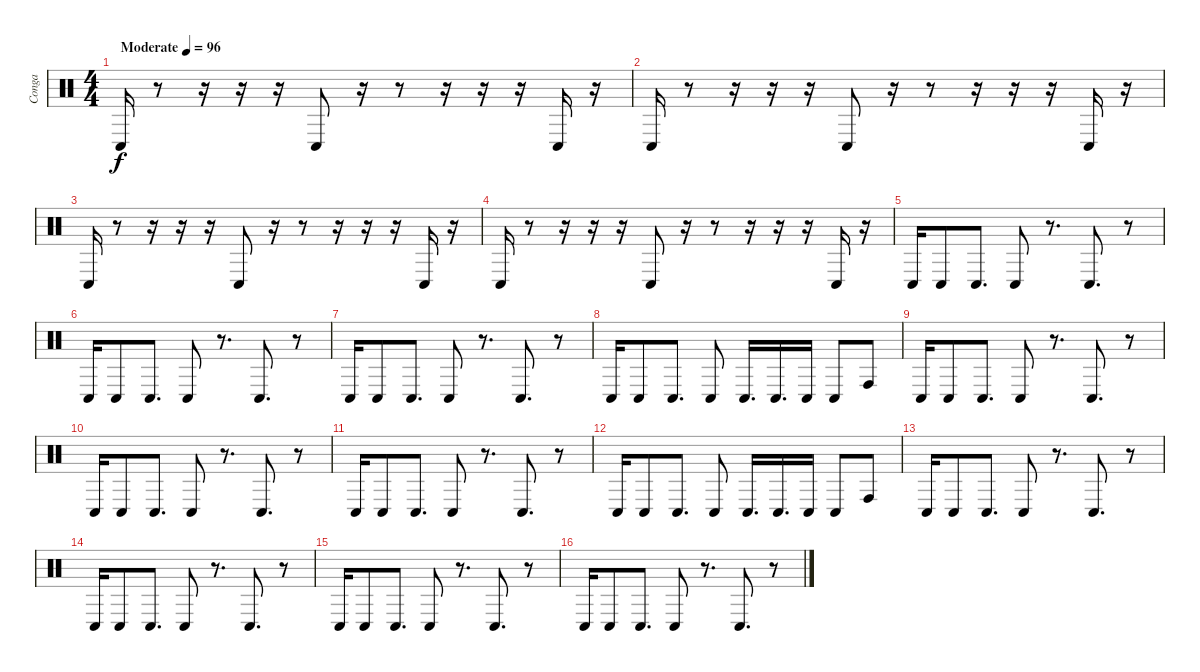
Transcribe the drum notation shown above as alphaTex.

\track ("Conga" "Conga") {instrument percussion}
\staff {score}
\articulation defaults
\ts (4 4)
\tempo (96 "Moderate")
\clef neutral
\ks c "Conga low (hit)".16{dy f}
r.8 r.16 r.16 r.16 "Conga low (hit)".8 r.16 r.8 r.16 r.16 r.16 "Conga low (hit)".16 r.16 |
"Conga low (hit)".16 r.8 r.16 r.16 r.16 "Conga low (hit)".8 r.16 r.8 r.16 r.16 r.16 "Conga low (hit)".16 r.16 |
"Conga low (hit)".16 r.8 r.16 r.16 r.16 "Conga low (hit)".8 r.16 r.8 r.16 r.16 r.16 "Conga low (hit)".16 r.16 |
"Conga low (hit)".16 r.8 r.16 r.16 r.16 "Conga low (hit)".8 r.16 r.8 r.16 r.16 r.16 "Conga low (hit)".16 r.16 |
"Conga low (hit)".16 "Conga low (hit)".8 "Conga low (hit)".8{d} "Conga low (hit)".8 r.8{d} "Conga low (hit)".8{d} r.8 |
"Conga low (hit)".16 "Conga low (hit)".8 "Conga low (hit)".8{d} "Conga low (hit)".8 r.8{d} "Conga low (hit)".8{d} r.8 |
"Conga low (hit)".16 "Conga low (hit)".8 "Conga low (hit)".8{d} "Conga low (hit)".8 r.8{d} "Conga low (hit)".8{d} r.8 |
"Conga low (hit)".16 "Conga low (hit)".8 "Conga low (hit)".8{d} "Conga low (hit)".8 "Conga low (hit)".16{d} "Conga low (hit)".16{d} "Conga low (hit)".16 "Conga low (hit)".8 "Conga high (hit)".8 |
"Conga low (hit)".16 "Conga low (hit)".8 "Conga low (hit)".8{d} "Conga low (hit)".8 r.8{d} "Conga low (hit)".8{d} r.8 |
"Conga low (hit)".16 "Conga low (hit)".8 "Conga low (hit)".8{d} "Conga low (hit)".8 r.8{d} "Conga low (hit)".8{d} r.8 |
"Conga low (hit)".16 "Conga low (hit)".8 "Conga low (hit)".8{d} "Conga low (hit)".8 r.8{d} "Conga low (hit)".8{d} r.8 |
"Conga low (hit)".16 "Conga low (hit)".8 "Conga low (hit)".8{d} "Conga low (hit)".8 "Conga low (hit)".16{d} "Conga low (hit)".16{d} "Conga low (hit)".16 "Conga low (hit)".8 "Conga high (hit)".8 |
"Conga low (hit)".16 "Conga low (hit)".8 "Conga low (hit)".8{d} "Conga low (hit)".8 r.8{d} "Conga low (hit)".8{d} r.8 |
"Conga low (hit)".16 "Conga low (hit)".8 "Conga low (hit)".8{d} "Conga low (hit)".8 r.8{d} "Conga low (hit)".8{d} r.8 |
"Conga low (hit)".16 "Conga low (hit)".8 "Conga low (hit)".8{d} "Conga low (hit)".8 r.8{d} "Conga low (hit)".8{d} r.8 |
"Conga low (hit)".16 "Conga low (hit)".8 "Conga low (hit)".8{d} "Conga low (hit)".8 r.8{d} "Conga low (hit)".8{d} r.8
